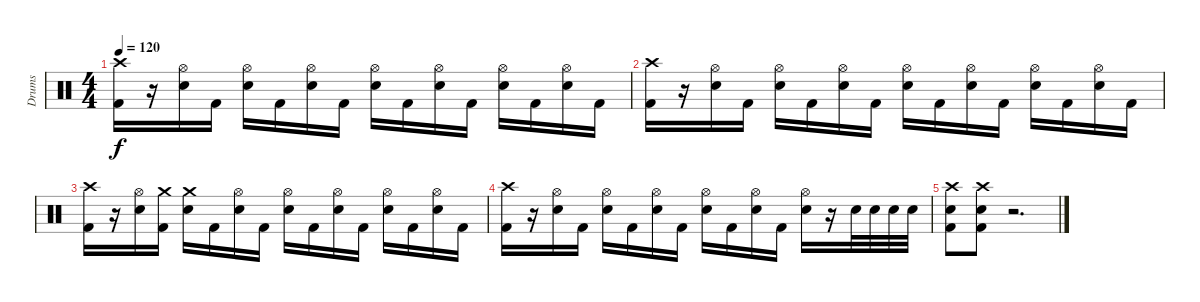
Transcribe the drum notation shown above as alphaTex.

\track ("Drums" "Drums") {instrument percussion}
\staff {score}
\articulation defaults
\ts (4 4)
\tempo 120
\clef neutral
\ks c
("Crash high (hit)" "Kick (hit) 2").16{dy f} r.16 ("Hi-Hat (open)" "Snare (hit) 2").16 "Kick (hit) 2".16 ("Hi-Hat (open)" "Snare (hit) 2").16 "Kick (hit) 2".16 ("Hi-Hat (open)" "Snare (hit) 2").16 "Kick (hit) 2".16 ("Hi-Hat (open)" "Snare (hit) 2").16 "Kick (hit) 2".16 ("Hi-Hat (open)" "Snare (hit) 2").16 "Kick (hit) 2".16 ("Hi-Hat (open)" "Snare (hit) 2").16 "Kick (hit) 2".16 ("Hi-Hat (open)" "Snare (hit) 2").16 "Kick (hit) 2".16 |
("Crash high (hit)" "Kick (hit) 2").16 r.16 ("Hi-Hat (open)" "Snare (hit) 2").16 "Kick (hit) 2".16 ("Hi-Hat (open)" "Snare (hit) 2").16 "Kick (hit) 2".16 ("Hi-Hat (open)" "Snare (hit) 2").16 "Kick (hit) 2".16 ("Hi-Hat (open)" "Snare (hit) 2").16 "Kick (hit) 2".16 ("Hi-Hat (open)" "Snare (hit) 2").16 "Kick (hit) 2".16 ("Hi-Hat (open)" "Snare (hit) 2").16 "Kick (hit) 2".16 ("Hi-Hat (open)" "Snare (hit) 2").16 "Kick (hit) 2".16 |
("Crash high (hit)" "Kick (hit) 2").16 r.16 ("Hi-Hat (open)" "Snare (hit) 2").16 ("Crash medium (hit)" "Kick (hit) 2").16 ("Crash medium (hit)" "Snare (hit) 2").16 "Kick (hit) 2".16 ("Hi-Hat (open)" "Snare (hit) 2").16 "Kick (hit) 2".16 ("Hi-Hat (open)" "Snare (hit) 2").16 "Kick (hit) 2".16 ("Hi-Hat (open)" "Snare (hit) 2").16 "Kick (hit) 2".16 ("Hi-Hat (open)" "Snare (hit) 2").16 "Kick (hit) 2".16 ("Hi-Hat (open)" "Snare (hit) 2").16 "Kick (hit) 2".16 |
("Crash high (hit)" "Kick (hit) 2").16 r.16 ("Hi-Hat (open)" "Snare (hit) 2").16 "Kick (hit) 2".16 ("Hi-Hat (open)" "Snare (hit) 2").16 "Kick (hit) 2".16 ("Hi-Hat (open)" "Snare (hit) 2").16 "Kick (hit) 2".16 ("Hi-Hat (open)" "Snare (hit) 2").16 "Kick (hit) 2".16 ("Hi-Hat (open)" "Snare (hit) 2").16 "Kick (hit) 2".16 ("Hi-Hat (open)" "Snare (hit) 2").16 r.16 "Snare (hit) 2".32 "Snare (hit) 2".32 "Snare (hit) 2".32 "Snare (hit) 2".32 |
("Crash high (hit)" "Snare (hit) 2" "Kick (hit) 2").8 ("Crash high (hit)" "Snare (hit) 2" "Kick (hit) 2").8 r.2{d}
